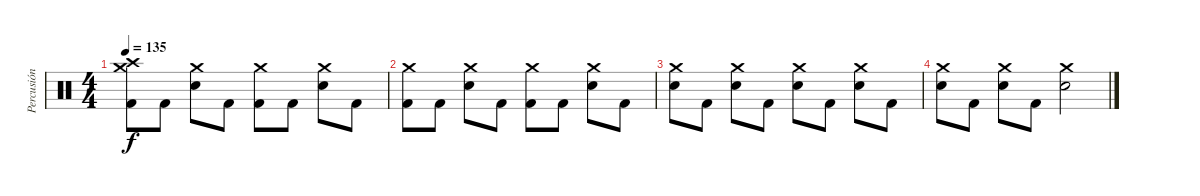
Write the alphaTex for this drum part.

\track ("Percusión" "Percusión") {instrument percussion}
\staff {score}
\articulation defaults
\ts (4 4)
\tempo 135
\clef neutral
\ks c
("Crash high (hit)" "Crash medium (hit)" "Kick (hit) 2").8{dy f} "Kick (hit) 2".8 ("Crash medium (hit)" "Electric Snare (hit)").8 "Kick (hit) 2".8 ("Crash medium (hit)" "Kick (hit) 2").8 "Kick (hit) 2".8 ("Crash medium (hit)" "Electric Snare (hit)").8 "Kick (hit) 2".8 |
("Crash medium (hit)" "Kick (hit) 2").8 "Kick (hit) 2".8 ("Crash medium (hit)" "Electric Snare (hit)").8 "Kick (hit) 2".8 ("Crash medium (hit)" "Kick (hit) 2").8 "Kick (hit) 2".8 ("Crash medium (hit)" "Electric Snare (hit)").8 "Kick (hit) 2".8 |
("Crash medium (hit)" "Electric Snare (hit)").8 "Kick (hit) 2".8 ("Crash medium (hit)" "Electric Snare (hit)").8 "Kick (hit) 2".8 ("Crash medium (hit)" "Electric Snare (hit)").8 "Kick (hit) 2".8 ("Crash medium (hit)" "Electric Snare (hit)").8 "Kick (hit) 2".8 |
("Crash medium (hit)" "Electric Snare (hit)").8 "Kick (hit) 2".8 ("Crash medium (hit)" "Electric Snare (hit)").8 "Kick (hit) 2".8 ("Crash medium (hit)" "Electric Snare (hit)").2
